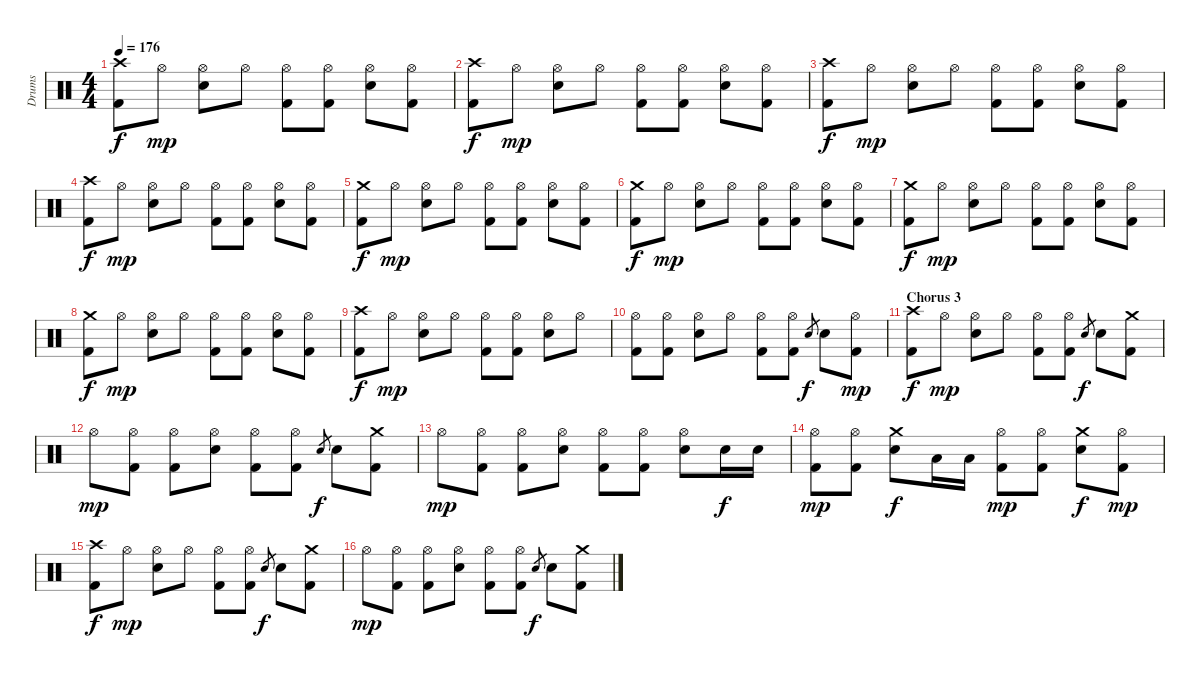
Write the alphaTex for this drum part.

\track ("Drums" "Drums") {instrument percussion}
\staff {score}
\articulation defaults
\ts (4 4)
\tempo 176
\clef neutral
\ks c
("Crash high (hit)" "Kick (hit) 2").8{dy f} "Hi-Hat (open)".8{dy mp} ("Hi-Hat (open)" "Electric Snare (hit)").8 "Hi-Hat (open)".8 ("Hi-Hat (open)" "Kick (hit) 2").8 ("Hi-Hat (open)" "Kick (hit) 2").8 ("Hi-Hat (open)" "Electric Snare (hit)").8 ("Hi-Hat (open)" "Kick (hit) 2").8 |
("Crash high (hit)" "Kick (hit) 2").8{dy f} "Hi-Hat (open)".8{dy mp} ("Hi-Hat (open)" "Electric Snare (hit)").8 "Hi-Hat (open)".8 ("Hi-Hat (open)" "Kick (hit) 2").8 ("Hi-Hat (open)" "Kick (hit) 2").8 ("Hi-Hat (open)" "Electric Snare (hit)").8 ("Hi-Hat (open)" "Kick (hit) 2").8 |
("Crash high (hit)" "Kick (hit) 2").8{dy f} "Hi-Hat (open)".8{dy mp} ("Hi-Hat (open)" "Electric Snare (hit)").8 "Hi-Hat (open)".8 ("Hi-Hat (open)" "Kick (hit) 2").8 ("Hi-Hat (open)" "Kick (hit) 2").8 ("Hi-Hat (open)" "Electric Snare (hit)").8 ("Hi-Hat (open)" "Kick (hit) 2").8 |
("Crash high (hit)" "Kick (hit) 2").8{dy f} "Hi-Hat (open)".8{dy mp} ("Hi-Hat (open)" "Electric Snare (hit)").8 "Hi-Hat (open)".8 ("Hi-Hat (open)" "Kick (hit) 2").8 ("Hi-Hat (open)" "Kick (hit) 2").8 ("Hi-Hat (open)" "Electric Snare (hit)").8 ("Hi-Hat (open)" "Kick (hit) 2").8 |
("Crash medium (hit)" "Kick (hit) 2").8{dy f} "Hi-Hat (open)".8{dy mp} ("Hi-Hat (open)" "Electric Snare (hit)").8 "Hi-Hat (open)".8 ("Hi-Hat (open)" "Kick (hit) 2").8 ("Hi-Hat (open)" "Kick (hit) 2").8 ("Hi-Hat (open)" "Electric Snare (hit)").8 ("Hi-Hat (open)" "Kick (hit) 2").8 |
("Crash medium (hit)" "Kick (hit) 2").8{dy f} "Hi-Hat (open)".8{dy mp} ("Hi-Hat (open)" "Electric Snare (hit)").8 "Hi-Hat (open)".8 ("Hi-Hat (open)" "Kick (hit) 2").8 ("Hi-Hat (open)" "Kick (hit) 2").8 ("Hi-Hat (open)" "Electric Snare (hit)").8 ("Hi-Hat (open)" "Kick (hit) 2").8 |
("Crash medium (hit)" "Kick (hit) 2").8{dy f} "Hi-Hat (open)".8{dy mp} ("Hi-Hat (open)" "Electric Snare (hit)").8 "Hi-Hat (open)".8 ("Hi-Hat (open)" "Kick (hit) 2").8 ("Hi-Hat (open)" "Kick (hit) 2").8 ("Hi-Hat (open)" "Electric Snare (hit)").8 ("Hi-Hat (open)" "Kick (hit) 2").8 |
("Crash medium (hit)" "Kick (hit) 2").8{dy f} "Hi-Hat (open)".8{dy mp} ("Hi-Hat (open)" "Electric Snare (hit)").8 "Hi-Hat (open)".8 ("Hi-Hat (open)" "Kick (hit) 2").8 ("Hi-Hat (open)" "Kick (hit) 2").8 ("Hi-Hat (open)" "Electric Snare (hit)").8 ("Hi-Hat (open)" "Kick (hit) 2").8 |
("Crash high (hit)" "Kick (hit) 2").8{dy f} "Hi-Hat (open)".8{dy mp} ("Hi-Hat (open)" "Electric Snare (hit)").8 "Hi-Hat (open)".8 ("Hi-Hat (open)" "Kick (hit) 2").8 ("Hi-Hat (open)" "Kick (hit) 2").8 ("Hi-Hat (open)" "Electric Snare (hit)").8 "Hi-Hat (open)".8 |
("Hi-Hat (open)" "Kick (hit) 2").8 ("Hi-Hat (open)" "Kick (hit) 2").8 ("Hi-Hat (open)" "Electric Snare (hit)").8 "Hi-Hat (open)".8 ("Hi-Hat (open)" "Kick (hit) 2").8 ("Hi-Hat (open)" "Kick (hit) 2").8 "Electric Snare (hit)".8{gr dy f} "Electric Snare (hit)".8 ("Hi-Hat (open)" "Kick (hit) 2").8{dy mp} |
\section ("" "Chorus 3")
("Crash high (hit)" "Kick (hit) 2").8{dy f} "Hi-Hat (open)".8{dy mp} ("Hi-Hat (open)" "Electric Snare (hit)").8 "Hi-Hat (open)".8 ("Hi-Hat (open)" "Kick (hit) 2").8 ("Hi-Hat (open)" "Kick (hit) 2").8 "Electric Snare (hit)".8{gr dy f} "Electric Snare (hit)".8 ("Crash medium (hit)" "Kick (hit) 2").8 |
"Hi-Hat (open)".8{dy mp} ("Hi-Hat (open)" "Kick (hit) 2").8 ("Hi-Hat (open)" "Kick (hit) 2").8 ("Hi-Hat (open)" "Electric Snare (hit)").8 ("Hi-Hat (open)" "Kick (hit) 2").8 ("Hi-Hat (open)" "Kick (hit) 2").8 "Electric Snare (hit)".8{gr dy f} "Electric Snare (hit)".8 ("Crash medium (hit)" "Kick (hit) 2").8 |
"Hi-Hat (open)".8{dy mp} ("Hi-Hat (open)" "Kick (hit) 2").8 ("Hi-Hat (open)" "Kick (hit) 2").8 ("Hi-Hat (open)" "Electric Snare (hit)").8 ("Hi-Hat (open)" "Kick (hit) 2").8 ("Hi-Hat (open)" "Kick (hit) 2").8 ("Hi-Hat (open)" "Electric Snare (hit)").8 "Electric Snare (hit)".16{dy f} "Electric Snare (hit)".16 |
("Hi-Hat (open)" "Kick (hit) 2").8{dy mp} ("Hi-Hat (open)" "Kick (hit) 2").8 ("Crash medium (hit)" "Electric Snare (hit)").8{dy f} "Low Tom (hit)".16 "Low Tom (hit)".16 ("Hi-Hat (open)" "Kick (hit) 2").8{dy mp} ("Hi-Hat (open)" "Kick (hit) 2").8 ("Crash medium (hit)" "Electric Snare (hit)").8{dy f} ("Hi-Hat (open)" "Kick (hit) 2").8{dy mp} |
("Crash high (hit)" "Kick (hit) 2").8{dy f} "Hi-Hat (open)".8{dy mp} ("Hi-Hat (open)" "Electric Snare (hit)").8 "Hi-Hat (open)".8 ("Hi-Hat (open)" "Kick (hit) 2").8 ("Hi-Hat (open)" "Kick (hit) 2").8 "Electric Snare (hit)".8{gr dy f} "Electric Snare (hit)".8 ("Crash medium (hit)" "Kick (hit) 2").8 |
"Hi-Hat (open)".8{dy mp} ("Hi-Hat (open)" "Kick (hit) 2").8 ("Hi-Hat (open)" "Kick (hit) 2").8 ("Hi-Hat (open)" "Electric Snare (hit)").8 ("Hi-Hat (open)" "Kick (hit) 2").8 ("Hi-Hat (open)" "Kick (hit) 2").8 "Electric Snare (hit)".8{gr dy f} "Electric Snare (hit)".8 ("Crash medium (hit)" "Kick (hit) 2").8
